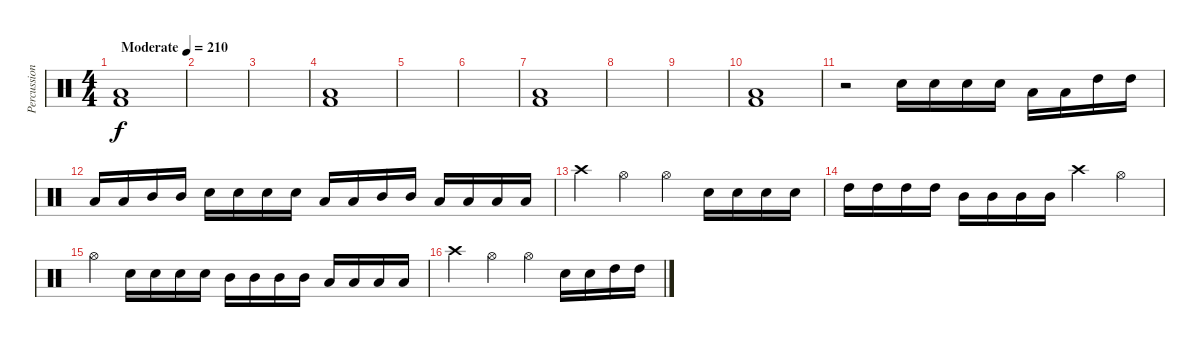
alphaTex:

\track ("Percussion" "Percussion") {instrument percussion}
\staff {score}
\articulation defaults
\ts (4 4)
\tempo (210 "Moderate")
\clef neutral
\ks c
("Low Floor Tom (hit)" "Kick (hit) 2").1{dy f} |
|
|
("Low Floor Tom (hit)" "Kick (hit) 2").1 |
|
|
("Low Floor Tom (hit)" "Kick (hit) 2").1 |
|
|
("Low Floor Tom (hit)" "Kick (hit) 2").1 |
r.2 "Snare (hit) 2".16 "Snare (hit) 2".16 "Snare (hit) 2".16 "Snare (hit) 2".16 "Low Tom (hit)".16 "Low Tom (hit)".16 "High Tom (hit)".16 "High Tom (hit)".16 |
"Low Tom (hit)".16 "Low Tom (hit)".16 "Mid Tom (hit)".16 "Mid Tom (hit)".16 "Snare (hit) 2".16 "Snare (hit) 2".16 "Snare (hit) 2".16 "Snare (hit) 2".16 "Low Floor Tom (hit)".16 "Low Floor Tom (hit)".16 "Mid Tom (hit)".16 "Mid Tom (hit)".16 "Low Floor Tom (hit)".16 "Low Floor Tom (hit)".16 "Low Tom (hit)".16 "Low Tom (hit)".16 |
"Crash high (hit)".4 "Hi-Hat (open)".4 "Hi-Hat (open)".4 "Snare (hit) 2".16 "Snare (hit) 2".16 "Snare (hit) 2".16 "Snare (hit) 2".16 |
"High Tom (hit)".16 "High Tom (hit)".16 "High Tom (hit)".16 "High Tom (hit)".16 "Mid Tom (hit)".16 "Mid Tom (hit)".16 "Mid Tom (hit)".16 "Mid Tom (hit)".16 "Crash high (hit)".4 "Hi-Hat (open)".4 |
"Hi-Hat (open)".4 "Snare (hit) 2".16 "Snare (hit) 2".16 "Snare (hit) 2".16 "Snare (hit) 2".16 "Mid Tom (hit)".16 "Mid Tom (hit)".16 "Mid Tom (hit)".16 "Mid Tom (hit)".16 "Low Tom (hit)".16 "Low Tom (hit)".16 "Low Tom (hit)".16 "Low Tom (hit)".16 |
"Crash high (hit)".4 "Hi-Hat (open)".4 "Hi-Hat (open)".4 "Snare (hit) 2".16 "Snare (hit) 2".16 "High Tom (hit)".16 "High Tom (hit)".16
